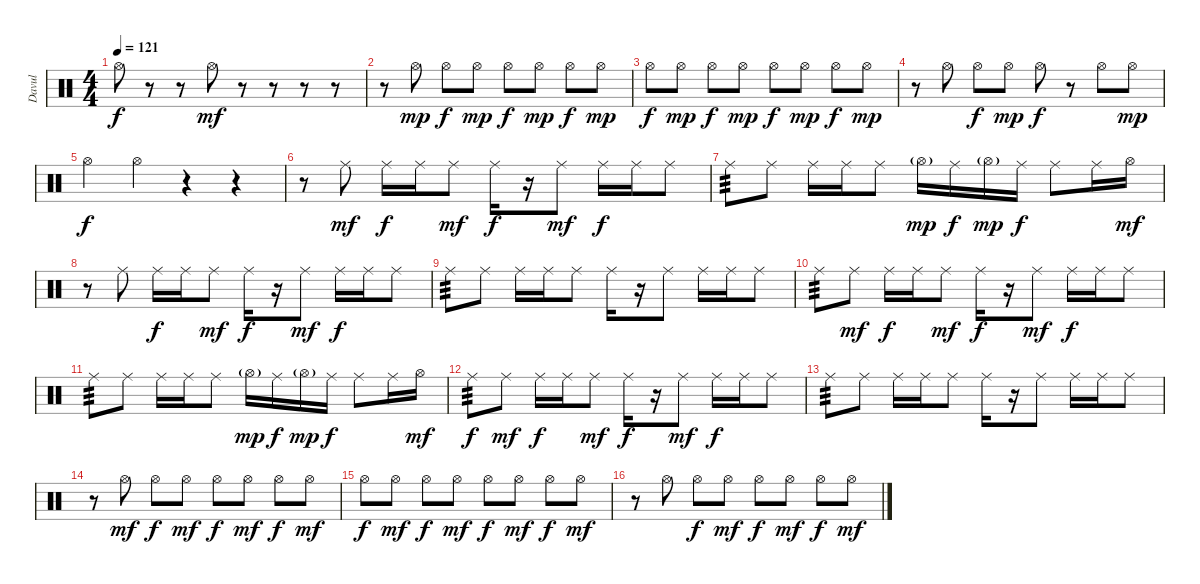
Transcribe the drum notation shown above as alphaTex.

\track ("Davul" "Davul") {instrument percussion}
\staff {score}
\articulation defaults
\ts (4 4)
\tempo 121
\clef neutral
\ks c "Hi-Hat (open)".8{dy f}
r.8 r.8 "Hi-Hat (open)".8{dy mf} r.8 r.8 r.8 r.8 |
r.8 "Hi-Hat (open)".8{dy mp} "Hi-Hat (open)".8{dy f} "Hi-Hat (open)".8{dy mp} "Hi-Hat (open)".8{dy f} "Hi-Hat (open)".8{dy mp} "Hi-Hat (open)".8{dy f} "Hi-Hat (open)".8{dy mp} |
"Hi-Hat (open)".8{dy f} "Hi-Hat (open)".8{dy mp} "Hi-Hat (open)".8{dy f} "Hi-Hat (open)".8{dy mp} "Hi-Hat (open)".8{dy f} "Hi-Hat (open)".8{dy mp} "Hi-Hat (open)".8{dy f} "Hi-Hat (open)".8{dy mp} |
r.8 "Hi-Hat (open)".8 "Hi-Hat (open)".8{dy f} "Hi-Hat (open)".8{dy mp} "Hi-Hat (open)".8{dy f} r.8 "Hi-Hat (open)".8 "Hi-Hat (open)".8{dy mp} |
"Hi-Hat (open)".4{dy f} "Hi-Hat (open)".4 r.4 r.4 |
\section ("" "")
r.8 "Ride (middle)".8{dy mf} "Ride (middle)".16{dy f} "Ride (middle)".16 "Ride (middle)".8{dy mf} "Ride (middle)".16{dy f} r.16 "Ride (middle)".8{dy mf} "Ride (middle)".16{dy f} "Ride (middle)".16 "Ride (middle)".8 |
"Ride (middle)".8{tp 3} "Ride (middle)".8 "Ride (middle)".16 "Ride (middle)".16 "Ride (middle)".8 "Hi-Hat (open)"{g}.16{dy mp} "Ride (middle)".16{dy f} "Hi-Hat (open)"{g}.16{dy mp} "Ride (middle)".16{dy f} "Ride (middle)".8 "Ride (middle)".16 "Hi-Hat (open)".16{dy mf} |
r.8 "Ride (middle)".8 "Ride (middle)".16{dy f} "Ride (middle)".16 "Ride (middle)".8{dy mf} "Ride (middle)".16{dy f} r.16 "Ride (middle)".8{dy mf} "Ride (middle)".16{dy f} "Ride (middle)".16 "Ride (middle)".8 |
"Ride (middle)".8{tp 3} "Ride (middle)".8 "Ride (middle)".16 "Ride (middle)".16 "Ride (middle)".8 "Ride (middle)".16 r.16 "Ride (middle)".8 "Ride (middle)".16 "Ride (middle)".16 "Ride (middle)".8 |
"Ride (middle)".8{tp 3} "Ride (middle)".8{dy mf} "Ride (middle)".16{dy f} "Ride (middle)".16 "Ride (middle)".8{dy mf} "Ride (middle)".16{dy f} r.16 "Ride (middle)".8{dy mf} "Ride (middle)".16{dy f} "Ride (middle)".16 "Ride (middle)".8 |
"Ride (middle)".8{tp 3} "Ride (middle)".8 "Ride (middle)".16 "Ride (middle)".16 "Ride (middle)".8 "Hi-Hat (open)"{g}.16{dy mp} "Ride (middle)".16{dy f} "Hi-Hat (open)"{g}.16{dy mp} "Ride (middle)".16{dy f} "Ride (middle)".8 "Ride (middle)".16 "Hi-Hat (open)".16{dy mf} |
"Ride (middle)".8{tp 3 dy f} "Ride (middle)".8{dy mf} "Ride (middle)".16{dy f} "Ride (middle)".16 "Ride (middle)".8{dy mf} "Ride (middle)".16{dy f} r.16 "Ride (middle)".8{dy mf} "Ride (middle)".16{dy f} "Ride (middle)".16 "Ride (middle)".8 |
"Ride (middle)".8{tp 3} "Ride (middle)".8 "Ride (middle)".16 "Ride (middle)".16 "Ride (middle)".8 "Ride (middle)".16 r.16 "Ride (middle)".8 "Ride (middle)".16 "Ride (middle)".16 "Ride (middle)".8 |
r.8 "Hi-Hat (open)".8{dy mf} "Hi-Hat (open)".8{dy f} "Hi-Hat (open)".8{dy mf} "Hi-Hat (open)".8{dy f} "Hi-Hat (open)".8{dy mf} "Hi-Hat (open)".8{dy f} "Hi-Hat (open)".8{dy mf} |
"Hi-Hat (open)".8{dy f} "Hi-Hat (open)".8{dy mf} "Hi-Hat (open)".8{dy f} "Hi-Hat (open)".8{dy mf} "Hi-Hat (open)".8{dy f} "Hi-Hat (open)".8{dy mf} "Hi-Hat (open)".8{dy f} "Hi-Hat (open)".8{dy mf} |
r.8 "Hi-Hat (open)".8 "Hi-Hat (open)".8{dy f} "Hi-Hat (open)".8{dy mf} "Hi-Hat (open)".8{dy f} "Hi-Hat (open)".8{dy mf} "Hi-Hat (open)".8{dy f} "Hi-Hat (open)".8{dy mf}
